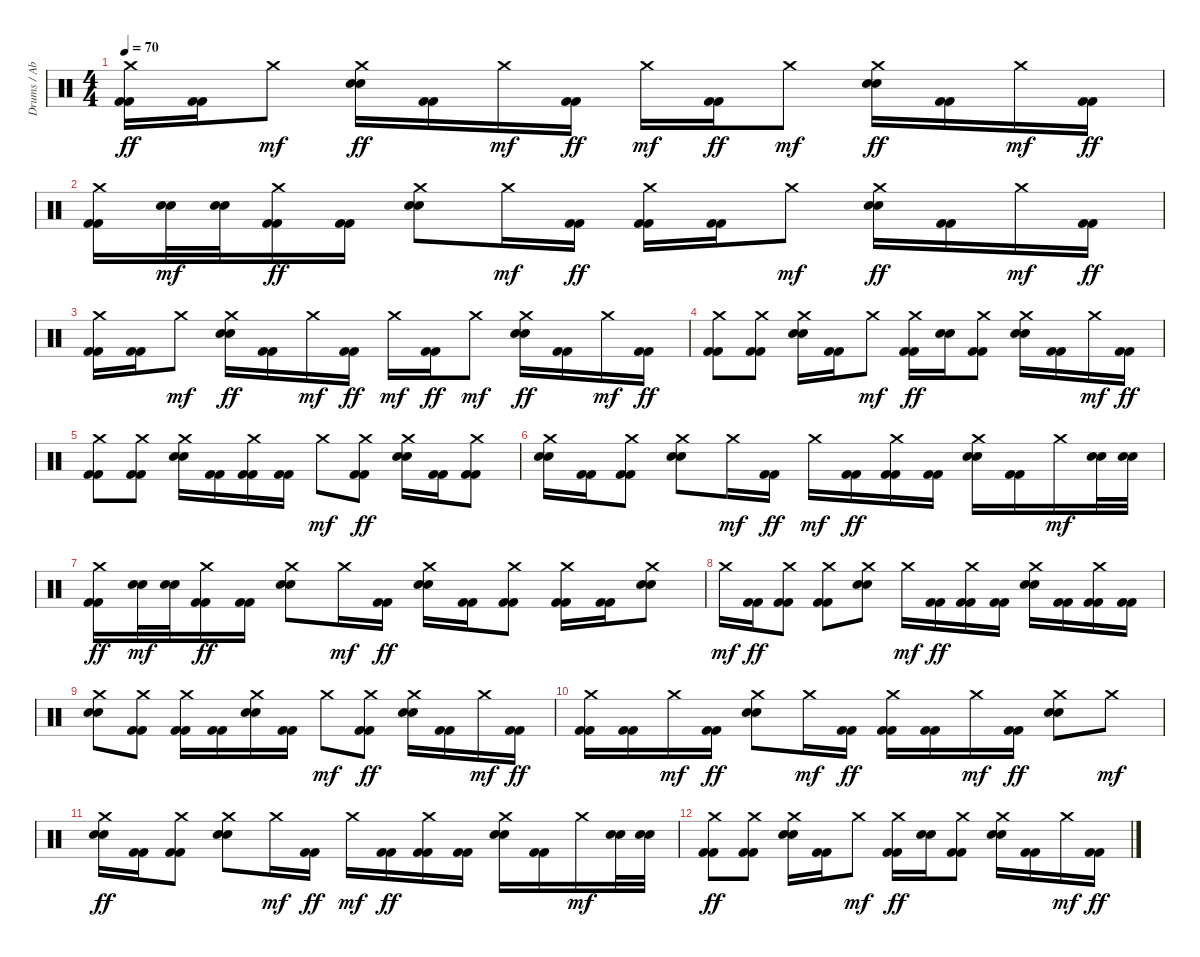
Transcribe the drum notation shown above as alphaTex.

\track ("Drums / Abe Cunningham" "Drums / Ab") {instrument percussion}
\staff {score}
\articulation defaults
\ts (4 4)
\tempo 70
\clef neutral
\ks c
("Crash medium (hit)" "Kick (hit) 2" "Kick (hit) 2").16{dy ff} ("Kick (hit) 2" "Kick (hit) 2").16 "Crash medium (hit)".8{dy mf} ("Crash medium (hit)" "Electric Snare (hit)" "Electric Snare (hit)").16{dy ff} ("Kick (hit) 2" "Kick (hit) 2").16 "Crash medium (hit)".16{dy mf} ("Kick (hit) 2" "Kick (hit) 2").16{dy ff} "Crash medium (hit)".16{dy mf} ("Kick (hit) 2" "Kick (hit) 2").16{dy ff} "Crash medium (hit)".8{dy mf} ("Crash medium (hit)" "Electric Snare (hit)" "Electric Snare (hit)").16{dy ff} ("Kick (hit) 2" "Kick (hit) 2").16 "Crash medium (hit)".16{dy mf} ("Kick (hit) 2" "Kick (hit) 2").16{dy ff} |
("Crash medium (hit)" "Kick (hit) 2" "Kick (hit) 2").16 ("Electric Snare (hit)" "Electric Snare (hit)").32{dy mf} ("Electric Snare (hit)" "Electric Snare (hit)").32 ("Crash medium (hit)" "Kick (hit) 2" "Kick (hit) 2").16{dy ff} ("Kick (hit) 2" "Kick (hit) 2").16 ("Crash medium (hit)" "Electric Snare (hit)" "Electric Snare (hit)").8 "Crash medium (hit)".16{dy mf} ("Kick (hit) 2" "Kick (hit) 2").16{dy ff} ("Crash medium (hit)" "Kick (hit) 2" "Kick (hit) 2").16 ("Kick (hit) 2" "Kick (hit) 2").16 "Crash medium (hit)".8{dy mf} ("Crash medium (hit)" "Electric Snare (hit)" "Electric Snare (hit)").16{dy ff} ("Kick (hit) 2" "Kick (hit) 2").16 "Crash medium (hit)".16{dy mf} ("Kick (hit) 2" "Kick (hit) 2").16{dy ff} |
("Crash medium (hit)" "Kick (hit) 2" "Kick (hit) 2").16 ("Kick (hit) 2" "Kick (hit) 2").16 "Crash medium (hit)".8{dy mf} ("Crash medium (hit)" "Electric Snare (hit)" "Electric Snare (hit)").16{dy ff} ("Kick (hit) 2" "Kick (hit) 2").16 "Crash medium (hit)".16{dy mf} ("Kick (hit) 2" "Kick (hit) 2").16{dy ff} "Crash medium (hit)".16{dy mf} ("Kick (hit) 2" "Kick (hit) 2").16{dy ff} "Crash medium (hit)".8{dy mf} ("Crash medium (hit)" "Electric Snare (hit)" "Electric Snare (hit)").16{dy ff} ("Kick (hit) 2" "Kick (hit) 2").16 "Crash medium (hit)".16{dy mf} ("Kick (hit) 2" "Kick (hit) 2").16{dy ff} |
("Crash medium (hit)" "Kick (hit) 2" "Kick (hit) 2").8 ("Crash medium (hit)" "Kick (hit) 2" "Kick (hit) 2").8 ("Crash medium (hit)" "Electric Snare (hit)" "Electric Snare (hit)").16 ("Kick (hit) 2" "Kick (hit) 2").16 "Crash medium (hit)".8{dy mf} ("Crash medium (hit)" "Kick (hit) 2" "Kick (hit) 2").16{dy ff} ("Electric Snare (hit)" "Electric Snare (hit)").16 ("Crash medium (hit)" "Kick (hit) 2" "Kick (hit) 2").8 ("Crash medium (hit)" "Electric Snare (hit)" "Electric Snare (hit)").16 ("Kick (hit) 2" "Kick (hit) 2").16 "Crash medium (hit)".16{dy mf} ("Kick (hit) 2" "Kick (hit) 2").16{dy ff} |
("Crash medium (hit)" "Kick (hit) 2" "Kick (hit) 2").8{volume 11} ("Crash medium (hit)" "Kick (hit) 2" "Kick (hit) 2").8 ("Crash medium (hit)" "Electric Snare (hit)" "Electric Snare (hit)").16 ("Kick (hit) 2" "Kick (hit) 2").16 ("Crash medium (hit)" "Kick (hit) 2" "Kick (hit) 2").16 ("Kick (hit) 2" "Kick (hit) 2").16 "Crash medium (hit)".8{dy mf} ("Crash medium (hit)" "Kick (hit) 2" "Kick (hit) 2").8{dy ff} ("Crash medium (hit)" "Electric Snare (hit)" "Electric Snare (hit)").16 ("Kick (hit) 2" "Kick (hit) 2").16 ("Crash medium (hit)" "Kick (hit) 2" "Kick (hit) 2").8 |
("Crash medium (hit)" "Electric Snare (hit)" "Electric Snare (hit)").16 ("Kick (hit) 2" "Kick (hit) 2").16 ("Crash medium (hit)" "Kick (hit) 2" "Kick (hit) 2").8 ("Crash medium (hit)" "Electric Snare (hit)" "Electric Snare (hit)").8 "Crash medium (hit)".16{dy mf} ("Kick (hit) 2" "Kick (hit) 2").16{dy ff} "Crash medium (hit)".16{dy mf} ("Kick (hit) 2" "Kick (hit) 2").16{dy ff} ("Crash medium (hit)" "Kick (hit) 2" "Kick (hit) 2").16 ("Kick (hit) 2" "Kick (hit) 2").16 ("Crash medium (hit)" "Electric Snare (hit)" "Electric Snare (hit)").16 ("Kick (hit) 2" "Kick (hit) 2").16 "Crash medium (hit)".16{dy mf} ("Electric Snare (hit)" "Electric Snare (hit)").32 ("Electric Snare (hit)" "Electric Snare (hit)").32 |
("Crash medium (hit)" "Kick (hit) 2" "Kick (hit) 2").16{dy ff volume 6} ("Electric Snare (hit)" "Electric Snare (hit)").32{dy mf} ("Electric Snare (hit)" "Electric Snare (hit)").32 ("Crash medium (hit)" "Kick (hit) 2" "Kick (hit) 2").16{dy ff} ("Kick (hit) 2" "Kick (hit) 2").16 ("Crash medium (hit)" "Electric Snare (hit)" "Electric Snare (hit)").8 "Crash medium (hit)".16{dy mf} ("Kick (hit) 2" "Kick (hit) 2").16{dy ff} ("Crash medium (hit)" "Electric Snare (hit)" "Electric Snare (hit)").16 ("Kick (hit) 2" "Kick (hit) 2").16 ("Crash medium (hit)" "Kick (hit) 2" "Kick (hit) 2").8 ("Crash medium (hit)" "Kick (hit) 2" "Kick (hit) 2").16 ("Kick (hit) 2" "Kick (hit) 2").16 ("Crash medium (hit)" "Electric Snare (hit)" "Electric Snare (hit)").8 |
"Crash medium (hit)".16{dy mf} ("Kick (hit) 2" "Kick (hit) 2").16{dy ff} ("Crash medium (hit)" "Kick (hit) 2" "Kick (hit) 2").8 ("Crash medium (hit)" "Kick (hit) 2" "Kick (hit) 2").8 ("Crash medium (hit)" "Electric Snare (hit)" "Electric Snare (hit)").8 "Crash medium (hit)".16{dy mf} ("Kick (hit) 2" "Kick (hit) 2").16{dy ff} ("Crash medium (hit)" "Kick (hit) 2" "Kick (hit) 2").16 ("Kick (hit) 2" "Kick (hit) 2").16 ("Crash medium (hit)" "Electric Snare (hit)" "Electric Snare (hit)").16 ("Kick (hit) 2" "Kick (hit) 2").16 ("Crash medium (hit)" "Kick (hit) 2" "Kick (hit) 2").16 ("Kick (hit) 2" "Kick (hit) 2").16 |
("Crash medium (hit)" "Electric Snare (hit)" "Electric Snare (hit)").8{volume 2} ("Crash medium (hit)" "Kick (hit) 2" "Kick (hit) 2").8 ("Crash medium (hit)" "Kick (hit) 2" "Kick (hit) 2").16 ("Kick (hit) 2" "Kick (hit) 2").16 ("Crash medium (hit)" "Electric Snare (hit)" "Electric Snare (hit)").16 ("Kick (hit) 2" "Kick (hit) 2").16 "Crash medium (hit)".8{dy mf} ("Crash medium (hit)" "Kick (hit) 2" "Kick (hit) 2").8{dy ff} ("Crash medium (hit)" "Electric Snare (hit)" "Electric Snare (hit)").16 ("Kick (hit) 2" "Kick (hit) 2").16 "Crash medium (hit)".16{dy mf} ("Kick (hit) 2" "Kick (hit) 2").16{dy ff} |
("Crash medium (hit)" "Kick (hit) 2" "Kick (hit) 2").16 ("Kick (hit) 2" "Kick (hit) 2").16 "Crash medium (hit)".16{dy mf} ("Kick (hit) 2" "Kick (hit) 2").16{dy ff} ("Crash medium (hit)" "Electric Snare (hit)" "Electric Snare (hit)").8 "Crash medium (hit)".16{dy mf} ("Kick (hit) 2" "Kick (hit) 2").16{dy ff} ("Crash medium (hit)" "Kick (hit) 2" "Kick (hit) 2").16 ("Kick (hit) 2" "Kick (hit) 2").16 "Crash medium (hit)".16{dy mf} ("Kick (hit) 2" "Kick (hit) 2").16{dy ff} ("Crash medium (hit)" "Electric Snare (hit)" "Electric Snare (hit)").8 "Crash medium (hit)".8{dy mf} |
("Crash medium (hit)" "Electric Snare (hit)" "Electric Snare (hit)").16{dy ff} ("Kick (hit) 2" "Kick (hit) 2").16 ("Crash medium (hit)" "Kick (hit) 2" "Kick (hit) 2").8 ("Crash medium (hit)" "Electric Snare (hit)" "Electric Snare (hit)").8 "Crash medium (hit)".16{dy mf} ("Kick (hit) 2" "Kick (hit) 2").16{dy ff} "Crash medium (hit)".16{dy mf} ("Kick (hit) 2" "Kick (hit) 2").16{dy ff} ("Crash medium (hit)" "Kick (hit) 2" "Kick (hit) 2").16 ("Kick (hit) 2" "Kick (hit) 2").16 ("Crash medium (hit)" "Electric Snare (hit)" "Electric Snare (hit)").16 ("Kick (hit) 2" "Kick (hit) 2").16 "Crash medium (hit)".16{dy mf} ("Electric Snare (hit)" "Electric Snare (hit)").32 ("Electric Snare (hit)" "Electric Snare (hit)").32 |
("Crash medium (hit)" "Kick (hit) 2" "Kick (hit) 2").8{dy ff} ("Crash medium (hit)" "Kick (hit) 2" "Kick (hit) 2").8 ("Crash medium (hit)" "Electric Snare (hit)" "Electric Snare (hit)").16 ("Kick (hit) 2" "Kick (hit) 2").16 "Crash medium (hit)".8{dy mf} ("Crash medium (hit)" "Kick (hit) 2" "Kick (hit) 2").16{dy ff} ("Electric Snare (hit)" "Electric Snare (hit)").16 ("Crash medium (hit)" "Kick (hit) 2" "Kick (hit) 2").8 ("Crash medium (hit)" "Electric Snare (hit)" "Electric Snare (hit)").16 ("Kick (hit) 2" "Kick (hit) 2").16 "Crash medium (hit)".16{dy mf} ("Kick (hit) 2" "Kick (hit) 2").16{dy ff}
